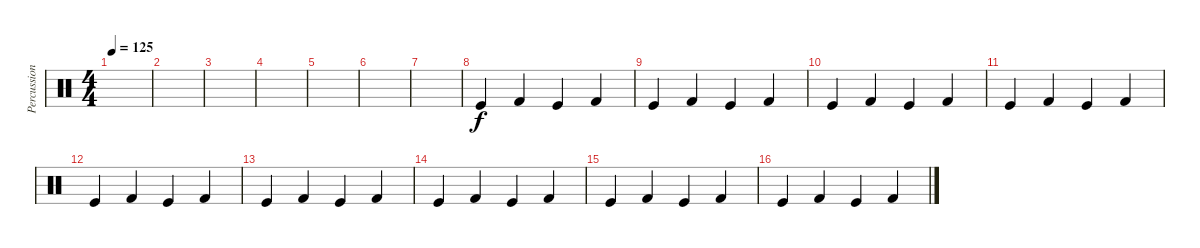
\track ("Percussion" "Percussion") {instrument percussion}
\staff {score}
\articulation defaults
\ts (4 4)
\tempo 125
\clef neutral
\ks c
|
|
|
|
|
|
|
"Kick (hit)".4 "Kick (hit) 2".4 "Kick (hit)".4 "Kick (hit) 2".4 |
"Kick (hit)".4 "Kick (hit) 2".4 "Kick (hit)".4 "Kick (hit) 2".4 |
"Kick (hit)".4 "Kick (hit) 2".4 "Kick (hit)".4 "Kick (hit) 2".4 |
"Kick (hit)".4 "Kick (hit) 2".4 "Kick (hit)".4 "Kick (hit) 2".4 |
"Kick (hit)".4 "Kick (hit) 2".4 "Kick (hit)".4 "Kick (hit) 2".4 |
"Kick (hit)".4 "Kick (hit) 2".4 "Kick (hit)".4 "Kick (hit) 2".4 |
"Kick (hit)".4 "Kick (hit) 2".4 "Kick (hit)".4 "Kick (hit) 2".4 |
"Kick (hit)".4 "Kick (hit) 2".4 "Kick (hit)".4 "Kick (hit) 2".4 |
"Kick (hit)".4 "Kick (hit) 2".4 "Kick (hit)".4 "Kick (hit) 2".4
